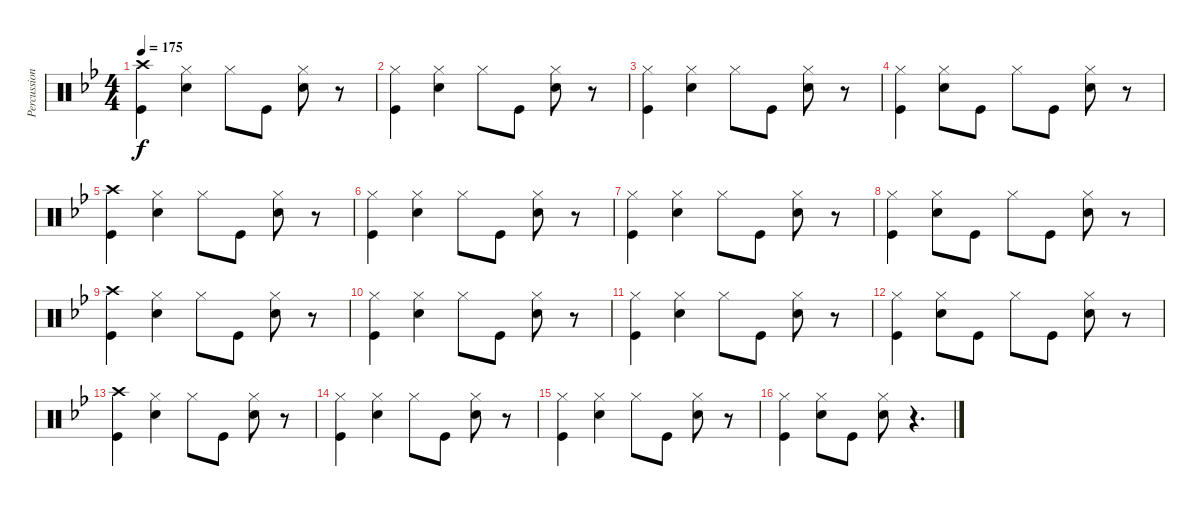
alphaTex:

\track ("Percussion" "Percussion") {instrument percussion}
\staff {score}
\articulation defaults
\ts (4 4)
\tempo 175
\clef neutral
\ks bb
("Kick (hit)" "Crash high (hit)").4{dy f} ("Snare (hit) 2" "Hi-Hat (closed)").4 "Hi-Hat (closed)".8 "Kick (hit)".8 ("Snare (hit) 2" "Hi-Hat (closed)").8 r.8 |
("Kick (hit)" "Hi-Hat (closed)").4 ("Snare (hit) 2" "Hi-Hat (closed)").4 "Hi-Hat (closed)".8 "Kick (hit)".8 ("Snare (hit) 2" "Hi-Hat (closed)").8 r.8 |
("Kick (hit)" "Hi-Hat (closed)").4 ("Snare (hit) 2" "Hi-Hat (closed)").4 "Hi-Hat (closed)".8 "Kick (hit)".8 ("Snare (hit) 2" "Hi-Hat (closed)").8 r.8 |
("Kick (hit)" "Hi-Hat (closed)").4 ("Snare (hit) 2" "Hi-Hat (closed)").8 "Kick (hit)".8 "Hi-Hat (closed)".8 "Kick (hit)".8 ("Snare (hit) 2" "Hi-Hat (closed)").8 r.8 |
("Kick (hit)" "Crash high (hit)").4 ("Snare (hit) 2" "Hi-Hat (closed)").4 "Hi-Hat (closed)".8 "Kick (hit)".8 ("Snare (hit) 2" "Hi-Hat (closed)").8 r.8 |
("Kick (hit)" "Hi-Hat (closed)").4 ("Snare (hit) 2" "Hi-Hat (closed)").4 "Hi-Hat (closed)".8 "Kick (hit)".8 ("Snare (hit) 2" "Hi-Hat (closed)").8 r.8 |
("Kick (hit)" "Hi-Hat (closed)").4 ("Snare (hit) 2" "Hi-Hat (closed)").4 "Hi-Hat (closed)".8 "Kick (hit)".8 ("Snare (hit) 2" "Hi-Hat (closed)").8 r.8 |
("Kick (hit)" "Hi-Hat (closed)").4 ("Snare (hit) 2" "Hi-Hat (closed)").8 "Kick (hit)".8 "Hi-Hat (closed)".8 "Kick (hit)".8 ("Snare (hit) 2" "Hi-Hat (closed)").8 r.8 |
("Kick (hit)" "Crash high (hit)").4 ("Snare (hit) 2" "Hi-Hat (closed)").4 "Hi-Hat (closed)".8 "Kick (hit)".8 ("Snare (hit) 2" "Hi-Hat (closed)").8 r.8 |
("Kick (hit)" "Hi-Hat (closed)").4 ("Snare (hit) 2" "Hi-Hat (closed)").4 "Hi-Hat (closed)".8 "Kick (hit)".8 ("Snare (hit) 2" "Hi-Hat (closed)").8 r.8 |
("Kick (hit)" "Hi-Hat (closed)").4 ("Snare (hit) 2" "Hi-Hat (closed)").4 "Hi-Hat (closed)".8 "Kick (hit)".8 ("Snare (hit) 2" "Hi-Hat (closed)").8 r.8 |
("Kick (hit)" "Hi-Hat (closed)").4 ("Snare (hit) 2" "Hi-Hat (closed)").8 "Kick (hit)".8 "Hi-Hat (closed)".8 "Kick (hit)".8 ("Snare (hit) 2" "Hi-Hat (closed)").8 r.8 |
("Kick (hit)" "Crash high (hit)").4 ("Snare (hit) 2" "Hi-Hat (closed)").4 "Hi-Hat (closed)".8 "Kick (hit)".8 ("Snare (hit) 2" "Hi-Hat (closed)").8 r.8 |
("Kick (hit)" "Hi-Hat (closed)").4 ("Snare (hit) 2" "Hi-Hat (closed)").4 "Hi-Hat (closed)".8 "Kick (hit)".8 ("Snare (hit) 2" "Hi-Hat (closed)").8 r.8 |
("Kick (hit)" "Hi-Hat (closed)").4 ("Snare (hit) 2" "Hi-Hat (closed)").4 "Hi-Hat (closed)".8 "Kick (hit)".8 ("Snare (hit) 2" "Hi-Hat (closed)").8 r.8 |
("Kick (hit)" "Hi-Hat (closed)").4 ("Snare (hit) 2" "Hi-Hat (closed)").8 "Kick (hit)".8 ("Hi-Hat (closed)" "Snare (hit) 2").8 r.4{d}
